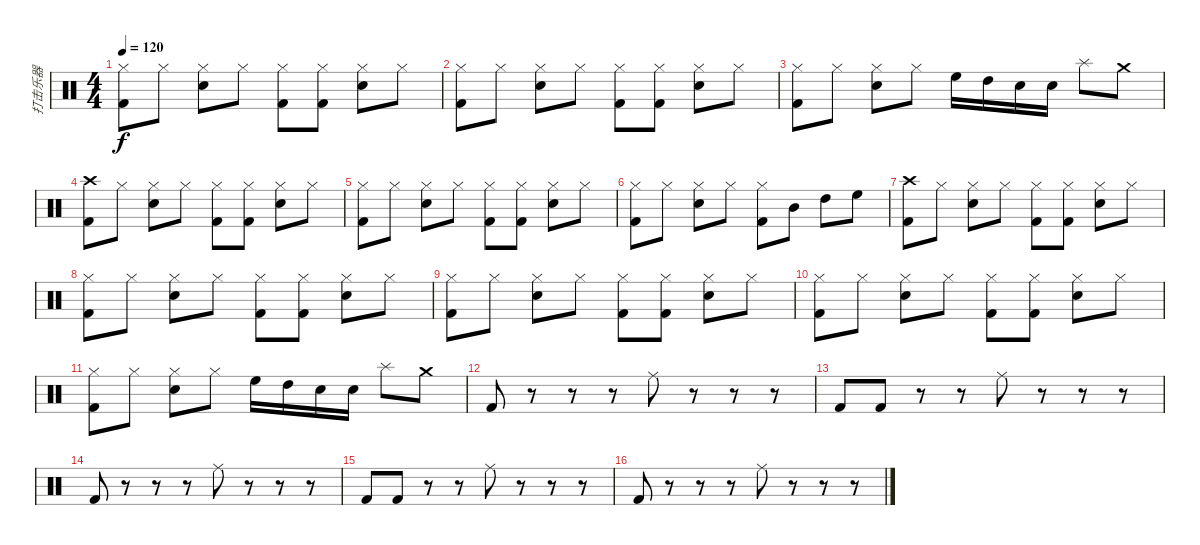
\track ("打击乐器" "打击乐器") {instrument percussion}
\staff {score}
\articulation defaults
\ts (4 4)
\tempo 120
\clef neutral
\ks c
("Hi-Hat (closed)" "Kick (hit) 2").8{dy f} "Hi-Hat (closed)".8 ("Hi-Hat (closed)" "Electric Snare (hit)").8 "Hi-Hat (closed)".8 ("Hi-Hat (closed)" "Kick (hit) 2").8 ("Hi-Hat (closed)" "Kick (hit) 2").8 ("Hi-Hat (closed)" "Electric Snare (hit)").8 "Hi-Hat (closed)".8 |
("Hi-Hat (closed)" "Kick (hit) 2").8 "Hi-Hat (closed)".8 ("Hi-Hat (closed)" "Electric Snare (hit)").8 "Hi-Hat (closed)".8 ("Hi-Hat (closed)" "Kick (hit) 2").8 ("Hi-Hat (closed)" "Kick (hit) 2").8 ("Hi-Hat (closed)" "Electric Snare (hit)").8 "Hi-Hat (closed)".8 |
("Hi-Hat (closed)" "Kick (hit) 2").8 "Hi-Hat (closed)".8 ("Hi-Hat (closed)" "Electric Snare (hit)").8 "Hi-Hat (closed)".8 "High Floor Tom (hit)".16 "High Tom (hit)".16 "Electric Snare (hit)".16 "Electric Snare (hit)".16 "Splash (hit)".8 "Crash medium (hit)".8 |
("Crash high (hit)" "Kick (hit) 2").8 "Hi-Hat (closed)".8 ("Hi-Hat (closed)" "Electric Snare (hit)").8 "Hi-Hat (closed)".8 ("Hi-Hat (closed)" "Kick (hit) 2").8 ("Hi-Hat (closed)" "Kick (hit) 2").8 ("Hi-Hat (closed)" "Electric Snare (hit)").8 "Hi-Hat (closed)".8 |
("Hi-Hat (closed)" "Kick (hit) 2").8 "Hi-Hat (closed)".8 ("Hi-Hat (closed)" "Electric Snare (hit)").8 "Hi-Hat (closed)".8 ("Hi-Hat (closed)" "Kick (hit) 2").8 ("Hi-Hat (closed)" "Kick (hit) 2").8 ("Hi-Hat (closed)" "Electric Snare (hit)").8 "Hi-Hat (closed)".8 |
("Hi-Hat (closed)" "Kick (hit) 2").8 "Hi-Hat (closed)".8 ("Hi-Hat (closed)" "Electric Snare (hit)").8 "Hi-Hat (closed)".8 ("Hi-Hat (closed)" "Kick (hit) 2").8 "Mid Tom (hit)".8 "High Tom (hit)".8 "High Floor Tom (hit)".8 |
("Crash high (hit)" "Kick (hit) 2").8 "Hi-Hat (closed)".8 ("Hi-Hat (closed)" "Electric Snare (hit)").8 "Hi-Hat (closed)".8 ("Hi-Hat (closed)" "Kick (hit) 2").8 ("Hi-Hat (closed)" "Kick (hit) 2").8 ("Hi-Hat (closed)" "Electric Snare (hit)").8 "Hi-Hat (closed)".8 |
("Hi-Hat (closed)" "Kick (hit) 2").8 "Hi-Hat (closed)".8 ("Hi-Hat (closed)" "Electric Snare (hit)").8 "Hi-Hat (closed)".8 ("Hi-Hat (closed)" "Kick (hit) 2").8 ("Hi-Hat (closed)" "Kick (hit) 2").8 ("Hi-Hat (closed)" "Electric Snare (hit)").8 "Hi-Hat (closed)".8 |
("Hi-Hat (closed)" "Kick (hit) 2").8 "Hi-Hat (closed)".8 ("Hi-Hat (closed)" "Electric Snare (hit)").8 "Hi-Hat (closed)".8 ("Hi-Hat (closed)" "Kick (hit) 2").8 ("Hi-Hat (closed)" "Kick (hit) 2").8 ("Hi-Hat (closed)" "Electric Snare (hit)").8 "Hi-Hat (closed)".8 |
("Hi-Hat (closed)" "Kick (hit) 2").8 "Hi-Hat (closed)".8 ("Hi-Hat (closed)" "Electric Snare (hit)").8 "Hi-Hat (closed)".8 ("Hi-Hat (closed)" "Kick (hit) 2").8 ("Hi-Hat (closed)" "Kick (hit) 2").8 ("Hi-Hat (closed)" "Electric Snare (hit)").8 "Hi-Hat (closed)".8 |
("Hi-Hat (closed)" "Kick (hit) 2").8 "Hi-Hat (closed)".8 ("Hi-Hat (closed)" "Electric Snare (hit)").8 "Hi-Hat (closed)".8 "High Floor Tom (hit)".16 "High Tom (hit)".16 "Electric Snare (hit)".16 "Electric Snare (hit)".16 "Splash (hit)".8 "Crash medium (hit)".8 |
"Kick (hit) 2".8 r.8 r.8 r.8 "Ride (middle)".8 r.8 r.8 r.8 |
"Kick (hit) 2".8 "Kick (hit) 2".8 r.8 r.8 "Ride (middle)".8 r.8 r.8 r.8 |
"Kick (hit) 2".8 r.8 r.8 r.8 "Ride (middle)".8 r.8 r.8 r.8 |
"Kick (hit) 2".8 "Kick (hit) 2".8 r.8 r.8 "Ride (middle)".8 r.8 r.8 r.8 |
"Kick (hit) 2".8 r.8 r.8 r.8 "Ride (middle)".8 r.8 r.8 r.8
